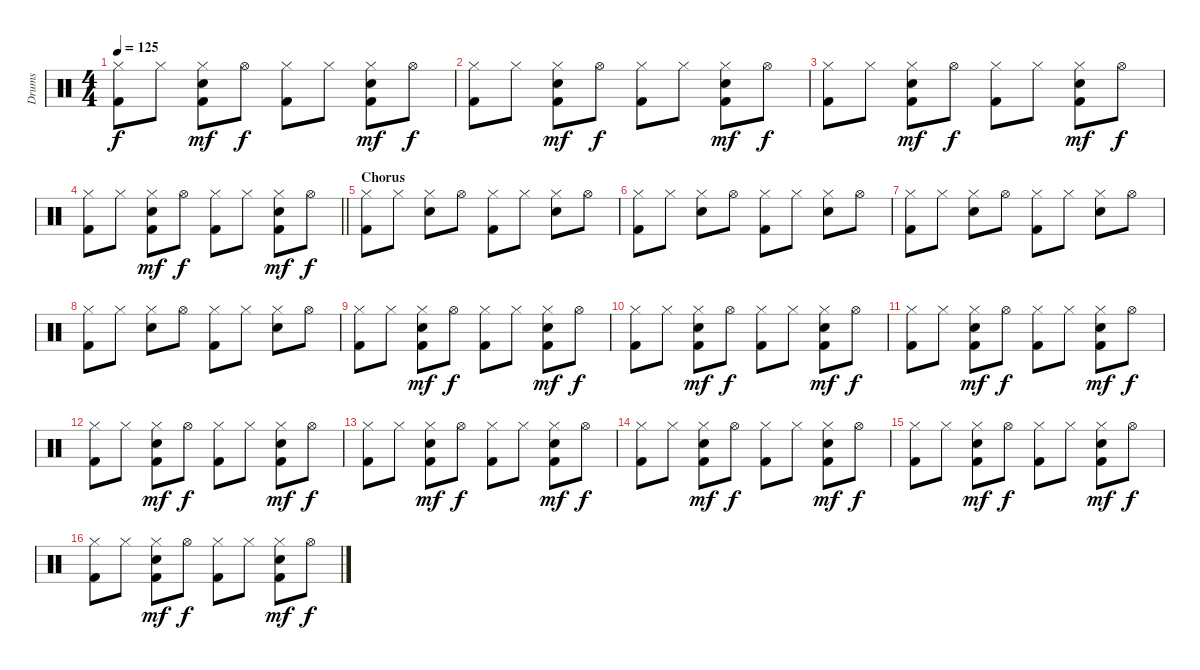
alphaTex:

\track ("Drums" "Drums") {instrument percussion}
\staff {score}
\articulation defaults
\ts (4 4)
\tempo 125
\clef neutral
\ks c
("Hi-Hat (closed)" "Kick (hit) 2").8{dy f} "Hi-Hat (closed)".8 ("Hi-Hat (closed)" "Snare (hit) 2" "Kick (hit) 2").8{dy mf} "Hi-Hat (open)".8{dy f} ("Hi-Hat (closed)" "Kick (hit) 2").8 "Hi-Hat (closed)".8 ("Hi-Hat (closed)" "Snare (hit) 2" "Kick (hit) 2").8{dy mf} "Hi-Hat (open)".8{dy f} |
("Hi-Hat (closed)" "Kick (hit) 2").8 "Hi-Hat (closed)".8 ("Hi-Hat (closed)" "Snare (hit) 2" "Kick (hit) 2").8{dy mf} "Hi-Hat (open)".8{dy f} ("Hi-Hat (closed)" "Kick (hit) 2").8 "Hi-Hat (closed)".8 ("Hi-Hat (closed)" "Snare (hit) 2" "Kick (hit) 2").8{dy mf} "Hi-Hat (open)".8{dy f} |
("Hi-Hat (closed)" "Kick (hit) 2").8 "Hi-Hat (closed)".8 ("Hi-Hat (closed)" "Snare (hit) 2" "Kick (hit) 2").8{dy mf} "Hi-Hat (open)".8{dy f} ("Hi-Hat (closed)" "Kick (hit) 2").8 "Hi-Hat (closed)".8 ("Hi-Hat (closed)" "Snare (hit) 2" "Kick (hit) 2").8{dy mf} "Hi-Hat (open)".8{dy f} |
\barLineRight lightlight
("Hi-Hat (closed)" "Kick (hit) 2").8 "Hi-Hat (closed)".8 ("Hi-Hat (closed)" "Snare (hit) 2" "Kick (hit) 2").8{dy mf} "Hi-Hat (open)".8{dy f} ("Hi-Hat (closed)" "Kick (hit) 2").8 "Hi-Hat (closed)".8 ("Hi-Hat (closed)" "Snare (hit) 2" "Kick (hit) 2").8{dy mf} "Hi-Hat (open)".8{dy f} |
\section ("" "Chorus")
("Hi-Hat (closed)" "Kick (hit) 2").8 "Hi-Hat (closed)".8 ("Hi-Hat (closed)" "Snare (hit) 2").8 "Hi-Hat (open)".8 ("Hi-Hat (closed)" "Kick (hit) 2").8 "Hi-Hat (closed)".8 ("Hi-Hat (closed)" "Snare (hit) 2").8 "Hi-Hat (open)".8 |
("Hi-Hat (closed)" "Kick (hit) 2").8 "Hi-Hat (closed)".8 ("Hi-Hat (closed)" "Snare (hit) 2").8 "Hi-Hat (open)".8 ("Hi-Hat (closed)" "Kick (hit) 2").8 "Hi-Hat (closed)".8 ("Hi-Hat (closed)" "Snare (hit) 2").8 "Hi-Hat (open)".8 |
("Hi-Hat (closed)" "Kick (hit) 2").8 "Hi-Hat (closed)".8 ("Hi-Hat (closed)" "Snare (hit) 2").8 "Hi-Hat (open)".8 ("Hi-Hat (closed)" "Kick (hit) 2").8 "Hi-Hat (closed)".8 ("Hi-Hat (closed)" "Snare (hit) 2").8 "Hi-Hat (open)".8 |
("Hi-Hat (closed)" "Kick (hit) 2").8 "Hi-Hat (closed)".8 ("Hi-Hat (closed)" "Snare (hit) 2").8 "Hi-Hat (open)".8 ("Hi-Hat (closed)" "Kick (hit) 2").8 "Hi-Hat (closed)".8 ("Hi-Hat (closed)" "Snare (hit) 2").8 "Hi-Hat (open)".8 |
("Hi-Hat (closed)" "Kick (hit) 2").8 "Hi-Hat (closed)".8 ("Hi-Hat (closed)" "Snare (hit) 2" "Kick (hit) 2").8{dy mf} "Hi-Hat (open)".8{dy f} ("Hi-Hat (closed)" "Kick (hit) 2").8 "Hi-Hat (closed)".8 ("Hi-Hat (closed)" "Snare (hit) 2" "Kick (hit) 2").8{dy mf} "Hi-Hat (open)".8{dy f} |
("Hi-Hat (closed)" "Kick (hit) 2").8 "Hi-Hat (closed)".8 ("Hi-Hat (closed)" "Snare (hit) 2" "Kick (hit) 2").8{dy mf} "Hi-Hat (open)".8{dy f} ("Hi-Hat (closed)" "Kick (hit) 2").8 "Hi-Hat (closed)".8 ("Hi-Hat (closed)" "Snare (hit) 2" "Kick (hit) 2").8{dy mf} "Hi-Hat (open)".8{dy f} |
("Hi-Hat (closed)" "Kick (hit) 2").8 "Hi-Hat (closed)".8 ("Hi-Hat (closed)" "Snare (hit) 2" "Kick (hit) 2").8{dy mf} "Hi-Hat (open)".8{dy f} ("Hi-Hat (closed)" "Kick (hit) 2").8 "Hi-Hat (closed)".8 ("Hi-Hat (closed)" "Snare (hit) 2" "Kick (hit) 2").8{dy mf} "Hi-Hat (open)".8{dy f} |
("Hi-Hat (closed)" "Kick (hit) 2").8 "Hi-Hat (closed)".8 ("Hi-Hat (closed)" "Snare (hit) 2" "Kick (hit) 2").8{dy mf} "Hi-Hat (open)".8{dy f} ("Hi-Hat (closed)" "Kick (hit) 2").8 "Hi-Hat (closed)".8 ("Hi-Hat (closed)" "Snare (hit) 2" "Kick (hit) 2").8{dy mf} "Hi-Hat (open)".8{dy f} |
("Hi-Hat (closed)" "Kick (hit) 2").8 "Hi-Hat (closed)".8 ("Hi-Hat (closed)" "Snare (hit) 2" "Kick (hit) 2").8{dy mf} "Hi-Hat (open)".8{dy f} ("Hi-Hat (closed)" "Kick (hit) 2").8 "Hi-Hat (closed)".8 ("Hi-Hat (closed)" "Snare (hit) 2" "Kick (hit) 2").8{dy mf} "Hi-Hat (open)".8{dy f} |
("Hi-Hat (closed)" "Kick (hit) 2").8 "Hi-Hat (closed)".8 ("Hi-Hat (closed)" "Snare (hit) 2" "Kick (hit) 2").8{dy mf} "Hi-Hat (open)".8{dy f} ("Hi-Hat (closed)" "Kick (hit) 2").8 "Hi-Hat (closed)".8 ("Hi-Hat (closed)" "Snare (hit) 2" "Kick (hit) 2").8{dy mf} "Hi-Hat (open)".8{dy f} |
("Hi-Hat (closed)" "Kick (hit) 2").8 "Hi-Hat (closed)".8 ("Hi-Hat (closed)" "Snare (hit) 2" "Kick (hit) 2").8{dy mf} "Hi-Hat (open)".8{dy f} ("Hi-Hat (closed)" "Kick (hit) 2").8 "Hi-Hat (closed)".8 ("Hi-Hat (closed)" "Snare (hit) 2" "Kick (hit) 2").8{dy mf} "Hi-Hat (open)".8{dy f} |
("Hi-Hat (closed)" "Kick (hit) 2").8 "Hi-Hat (closed)".8 ("Hi-Hat (closed)" "Snare (hit) 2" "Kick (hit) 2").8{dy mf} "Hi-Hat (open)".8{dy f} ("Hi-Hat (closed)" "Kick (hit) 2").8 "Hi-Hat (closed)".8 ("Hi-Hat (closed)" "Snare (hit) 2" "Kick (hit) 2").8{dy mf} "Hi-Hat (open)".8{dy f}
